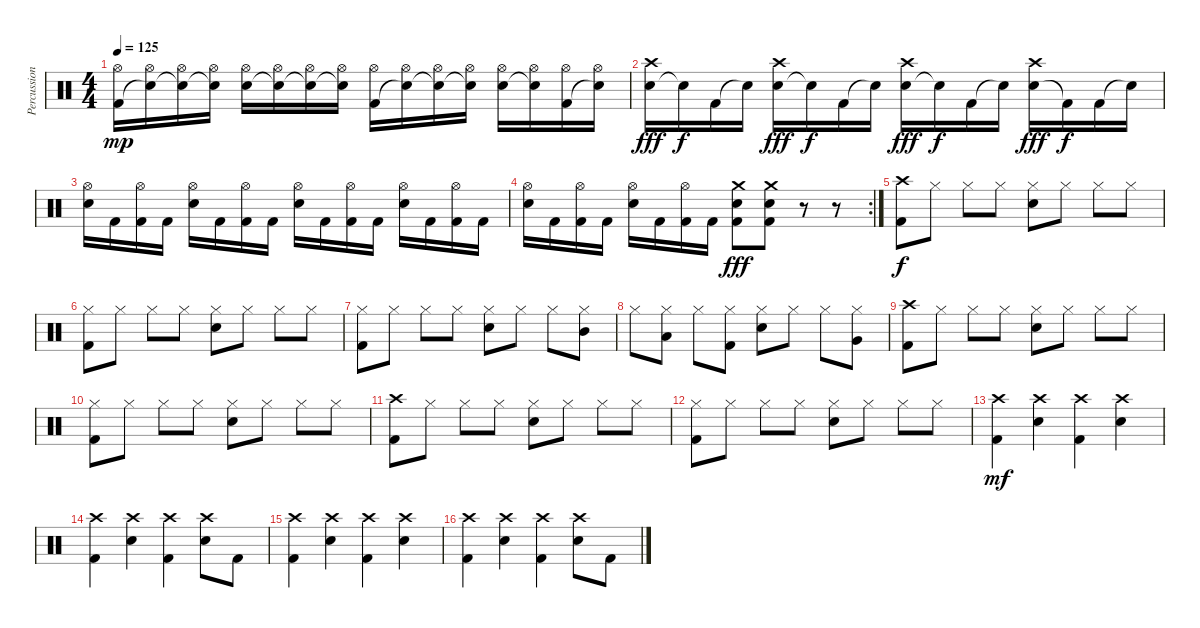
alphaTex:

\track ("Percussion" "Percussion") {instrument percussion}
\staff {score}
\articulation defaults
\ts (4 4)
\tempo 125
\clef neutral
\ks c
("Kick (hit) 2" "Hi-Hat (open)").16{dy mp} ("Snare (hit)"{t} "Hi-Hat (open)").16 ("Snare (hit)"{t} "Hi-Hat (open)").16 ("Snare (hit)"{t} "Hi-Hat (open)").16 ("Electric Snare (hit)" "Hi-Hat (open)").16 ("Snare (hit)"{t} "Hi-Hat (open)").16 ("Snare (hit)"{t} "Hi-Hat (open)").16 ("Snare (hit)"{t} "Hi-Hat (open)").16 ("Kick (hit) 2" "Hi-Hat (open)").16 ("Snare (hit)"{t} "Hi-Hat (open)").16 ("Snare (hit)"{t} "Hi-Hat (open)").16 ("Snare (hit)"{t} "Hi-Hat (open)").16 ("Electric Snare (hit)" "Hi-Hat (open)").16 ("Snare (hit)"{t} "Hi-Hat (open)").16 ("Kick (hit) 2" "Hi-Hat (open)").16 ("Snare (hit)"{t} "Hi-Hat (open)").16 |
("Electric Snare (hit)" "Crash high (hit)").16{dy fff} "Snare (hit)"{t}.16{dy f} "Kick (hit) 2".16 "Snare (hit)"{t}.16 ("Electric Snare (hit)" "Crash high (hit)").16{dy fff} "Snare (hit)"{t}.16{dy f} "Kick (hit) 2".16 "Snare (hit)"{t}.16 ("Electric Snare (hit)" "Crash high (hit)").16{dy fff} "Snare (hit)"{t}.16{dy f} "Kick (hit) 2".16 "Snare (hit)"{t}.16 ("Electric Snare (hit)" "Crash high (hit)").16{dy fff} "Kick (hit) 2"{t}.16{dy f} "Kick (hit) 2".16 "Snare (hit)"{t}.16 |
("Electric Snare (hit)" "Hi-Hat (open)").16 "Kick (hit) 2".16 ("Kick (hit) 2" "Hi-Hat (open)").16 "Kick (hit) 2".16 ("Electric Snare (hit)" "Hi-Hat (open)").16 "Kick (hit) 2".16 ("Kick (hit) 2" "Hi-Hat (open)").16 "Kick (hit) 2".16 ("Electric Snare (hit)" "Hi-Hat (open)").16 "Kick (hit) 2".16 ("Kick (hit) 2" "Hi-Hat (open)").16 "Kick (hit) 2".16 ("Electric Snare (hit)" "Hi-Hat (open)").16 "Kick (hit) 2".16 ("Kick (hit) 2" "Hi-Hat (open)").16 "Kick (hit) 2".16 |
\rc 2
("Electric Snare (hit)" "Hi-Hat (open)").16 "Kick (hit) 2".16 ("Kick (hit) 2" "Hi-Hat (open)").16 "Kick (hit) 2".16 ("Electric Snare (hit)" "Hi-Hat (open)").16 "Kick (hit) 2".16 ("Kick (hit) 2" "Hi-Hat (open)").16 "Kick (hit) 2".16 ("Electric Snare (hit)" "Kick (hit) 2" "Crash medium (hit)").8{dy fff} ("Electric Snare (hit)" "Kick (hit) 2" "Crash medium (hit)").8 r.8 r.8 |
("Kick (hit) 2" "Crash high (hit)").8{dy f} "Hi-Hat (closed)".8 "Hi-Hat (closed)".8 "Hi-Hat (closed)".8 ("Electric Snare (hit)" "Hi-Hat (closed)").8 "Hi-Hat (closed)".8 "Hi-Hat (closed)".8 "Hi-Hat (closed)".8 |
("Kick (hit) 2" "Hi-Hat (closed)").8 "Hi-Hat (closed)".8 "Hi-Hat (closed)".8 "Hi-Hat (closed)".8 ("Electric Snare (hit)" "Hi-Hat (closed)").8 "Hi-Hat (closed)".8 "Hi-Hat (closed)".8 "Hi-Hat (closed)".8 |
("Kick (hit) 2" "Hi-Hat (closed)").8 "Hi-Hat (closed)".8 "Hi-Hat (closed)".8 "Hi-Hat (closed)".8 ("Electric Snare (hit)" "Hi-Hat (closed)").8 "Hi-Hat (closed)".8 "Hi-Hat (closed)".8 ("Mid Tom (hit)" "Hi-Hat (closed)").8 |
"Hi-Hat (closed)".8 ("Low Tom (hit)" "Hi-Hat (closed)").8 "Hi-Hat (closed)".8 ("Kick (hit) 2" "Hi-Hat (closed)").8 ("Electric Snare (hit)" "Hi-Hat (closed)").8 "Hi-Hat (closed)".8 "Hi-Hat (closed)".8 ("Very Low Tom (hit)" "Hi-Hat (closed)").8 |
("Kick (hit) 2" "Crash high (hit)").8 "Hi-Hat (closed)".8 "Hi-Hat (closed)".8 "Hi-Hat (closed)".8 ("Electric Snare (hit)" "Hi-Hat (closed)").8 "Hi-Hat (closed)".8 "Hi-Hat (closed)".8 "Hi-Hat (closed)".8 |
("Kick (hit) 2" "Hi-Hat (closed)").8 "Hi-Hat (closed)".8 "Hi-Hat (closed)".8 "Hi-Hat (closed)".8 ("Electric Snare (hit)" "Hi-Hat (closed)").8 "Hi-Hat (closed)".8 "Hi-Hat (closed)".8 "Hi-Hat (closed)".8 |
("Kick (hit) 2" "Crash high (hit)").8 "Hi-Hat (closed)".8 "Hi-Hat (closed)".8 "Hi-Hat (closed)".8 ("Electric Snare (hit)" "Hi-Hat (closed)").8 "Hi-Hat (closed)".8 "Hi-Hat (closed)".8 "Hi-Hat (closed)".8 |
("Kick (hit) 2" "Hi-Hat (closed)").8 "Hi-Hat (closed)".8 "Hi-Hat (closed)".8 "Hi-Hat (closed)".8 ("Electric Snare (hit)" "Hi-Hat (closed)").8 "Hi-Hat (closed)".8 "Hi-Hat (closed)".8 "Hi-Hat (closed)".8 |
("Kick (hit) 2" "Crash high (hit)").4{dy mf} ("Electric Snare (hit)" "Crash high (hit)").4 ("Kick (hit) 2" "Crash high (hit)").4 ("Electric Snare (hit)" "Crash high (hit)").4 |
("Kick (hit) 2" "Crash high (hit)").4 ("Electric Snare (hit)" "Crash high (hit)").4 ("Kick (hit) 2" "Crash high (hit)").4 ("Electric Snare (hit)" "Crash high (hit)").8 "Kick (hit) 2".8 |
("Kick (hit) 2" "Crash high (hit)").4 ("Electric Snare (hit)" "Crash high (hit)").4 ("Kick (hit) 2" "Crash high (hit)").4 ("Electric Snare (hit)" "Crash high (hit)").4 |
("Kick (hit) 2" "Crash high (hit)").4 ("Electric Snare (hit)" "Crash high (hit)").4 ("Kick (hit) 2" "Crash high (hit)").4 ("Electric Snare (hit)" "Crash high (hit)").8 "Kick (hit) 2".8
